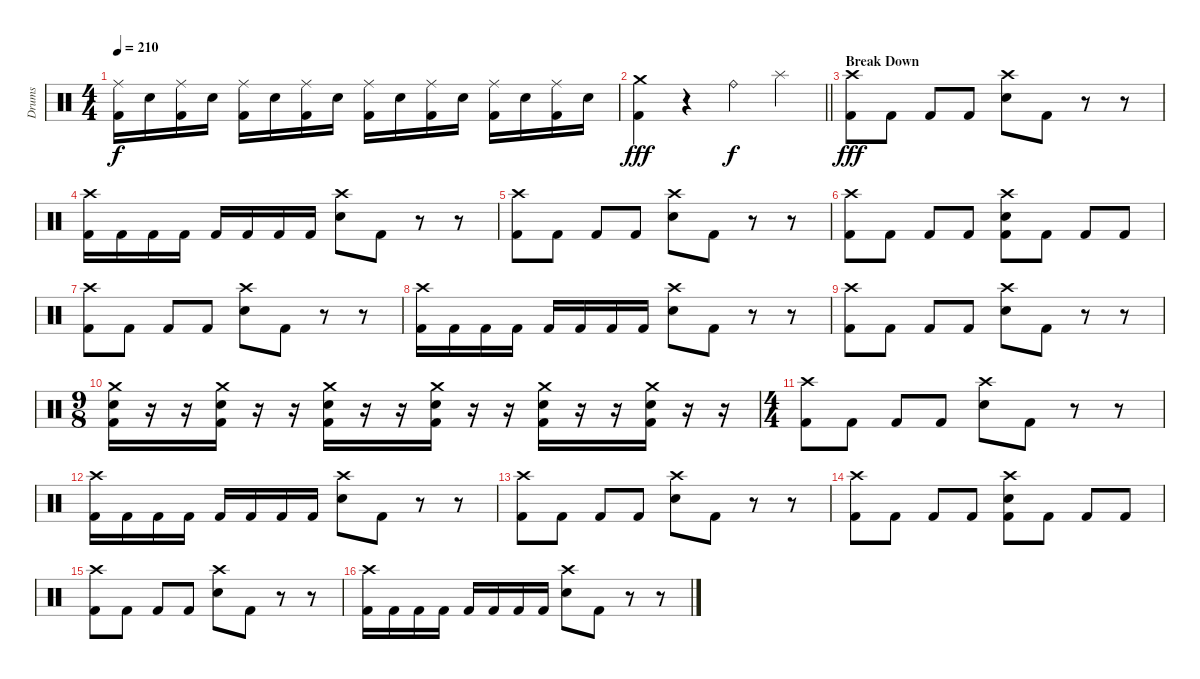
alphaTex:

\track ("Drums" "Drums") {instrument percussion}
\staff {score}
\articulation defaults
\ts (4 4)
\tempo 210
\clef neutral
\ks c
("Ride (middle)" "Kick (hit) 2").16{dy f} "Electric Snare (hit)".16 ("Ride (middle)" "Kick (hit) 2").16 "Electric Snare (hit)".16 ("Ride (middle)" "Kick (hit) 2").16 "Electric Snare (hit)".16 ("Ride (middle)" "Kick (hit) 2").16 "Electric Snare (hit)".16 ("Ride (middle)" "Kick (hit) 2").16 "Electric Snare (hit)".16 ("Ride (middle)" "Kick (hit) 2").16 "Electric Snare (hit)".16 ("Ride (middle)" "Kick (hit) 2").16 "Electric Snare (hit)".16 ("Ride (middle)" "Kick (hit) 2").16 "Electric Snare (hit)".16 |
\barLineRight lightlight
("Crash medium (hit)" "Kick (hit) 2").4{dy fff} r.4 "Ride (bell)".4{dy f} "Splash (hit)".4 |
\section ("" "Break Down")
("Crash high (hit)" "Kick (hit) 2").8{dy fff} "Kick (hit) 2".8 "Kick (hit) 2".8 "Kick (hit) 2".8 ("Crash high (hit)" "Electric Snare (hit)").8 "Kick (hit) 2".8 r.8 r.8 |
("Crash high (hit)" "Kick (hit) 2").16 "Kick (hit) 2".16 "Kick (hit) 2".16 "Kick (hit) 2".16 "Kick (hit) 2".16 "Kick (hit) 2".16 "Kick (hit) 2".16 "Kick (hit) 2".16 ("Crash high (hit)" "Electric Snare (hit)").8 "Kick (hit) 2".8 r.8 r.8 |
("Crash high (hit)" "Kick (hit) 2").8 "Kick (hit) 2".8 "Kick (hit) 2".8 "Kick (hit) 2".8 ("Crash high (hit)" "Electric Snare (hit)").8 "Kick (hit) 2".8 r.8 r.8 |
("Crash high (hit)" "Kick (hit) 2").8 "Kick (hit) 2".8 "Kick (hit) 2".8 "Kick (hit) 2".8 ("Crash high (hit)" "Electric Snare (hit)" "Kick (hit) 2").8 "Kick (hit) 2".8 "Kick (hit) 2".8 "Kick (hit) 2".8 |
("Crash high (hit)" "Kick (hit) 2").8 "Kick (hit) 2".8 "Kick (hit) 2".8 "Kick (hit) 2".8 ("Crash high (hit)" "Electric Snare (hit)").8 "Kick (hit) 2".8 r.8 r.8 |
("Crash high (hit)" "Kick (hit) 2").16 "Kick (hit) 2".16 "Kick (hit) 2".16 "Kick (hit) 2".16 "Kick (hit) 2".16 "Kick (hit) 2".16 "Kick (hit) 2".16 "Kick (hit) 2".16 ("Crash high (hit)" "Electric Snare (hit)").8 "Kick (hit) 2".8 r.8 r.8 |
("Crash high (hit)" "Kick (hit) 2").8 "Kick (hit) 2".8 "Kick (hit) 2".8 "Kick (hit) 2".8 ("Crash high (hit)" "Electric Snare (hit)").8 "Kick (hit) 2".8 r.8 r.8 |
\ts (9 8)
("Crash medium (hit)" "Electric Snare (hit)" "Kick (hit) 2").16 r.16 r.16 ("Crash medium (hit)" "Electric Snare (hit)" "Kick (hit) 2").16 r.16 r.16 ("Crash medium (hit)" "Electric Snare (hit)" "Kick (hit) 2").16 r.16 r.16 ("Crash medium (hit)" "Electric Snare (hit)" "Kick (hit) 2").16 r.16 r.16 ("Crash medium (hit)" "Electric Snare (hit)" "Kick (hit) 2").16 r.16 r.16 ("Crash medium (hit)" "Electric Snare (hit)" "Kick (hit) 2").16 r.16 r.16 |
\ts (4 4)
("Crash high (hit)" "Kick (hit) 2").8 "Kick (hit) 2".8 "Kick (hit) 2".8 "Kick (hit) 2".8 ("Crash high (hit)" "Electric Snare (hit)").8 "Kick (hit) 2".8 r.8 r.8 |
("Crash high (hit)" "Kick (hit) 2").16 "Kick (hit) 2".16 "Kick (hit) 2".16 "Kick (hit) 2".16 "Kick (hit) 2".16 "Kick (hit) 2".16 "Kick (hit) 2".16 "Kick (hit) 2".16 ("Crash high (hit)" "Electric Snare (hit)").8 "Kick (hit) 2".8 r.8 r.8 |
("Crash high (hit)" "Kick (hit) 2").8 "Kick (hit) 2".8 "Kick (hit) 2".8 "Kick (hit) 2".8 ("Crash high (hit)" "Electric Snare (hit)").8 "Kick (hit) 2".8 r.8 r.8 |
("Crash high (hit)" "Kick (hit) 2").8 "Kick (hit) 2".8 "Kick (hit) 2".8 "Kick (hit) 2".8 ("Crash high (hit)" "Electric Snare (hit)" "Kick (hit) 2").8 "Kick (hit) 2".8 "Kick (hit) 2".8 "Kick (hit) 2".8 |
("Crash high (hit)" "Kick (hit) 2").8 "Kick (hit) 2".8 "Kick (hit) 2".8 "Kick (hit) 2".8 ("Crash high (hit)" "Electric Snare (hit)").8 "Kick (hit) 2".8 r.8 r.8 |
("Crash high (hit)" "Kick (hit) 2").16 "Kick (hit) 2".16 "Kick (hit) 2".16 "Kick (hit) 2".16 "Kick (hit) 2".16 "Kick (hit) 2".16 "Kick (hit) 2".16 "Kick (hit) 2".16 ("Crash high (hit)" "Electric Snare (hit)").8 "Kick (hit) 2".8 r.8 r.8
